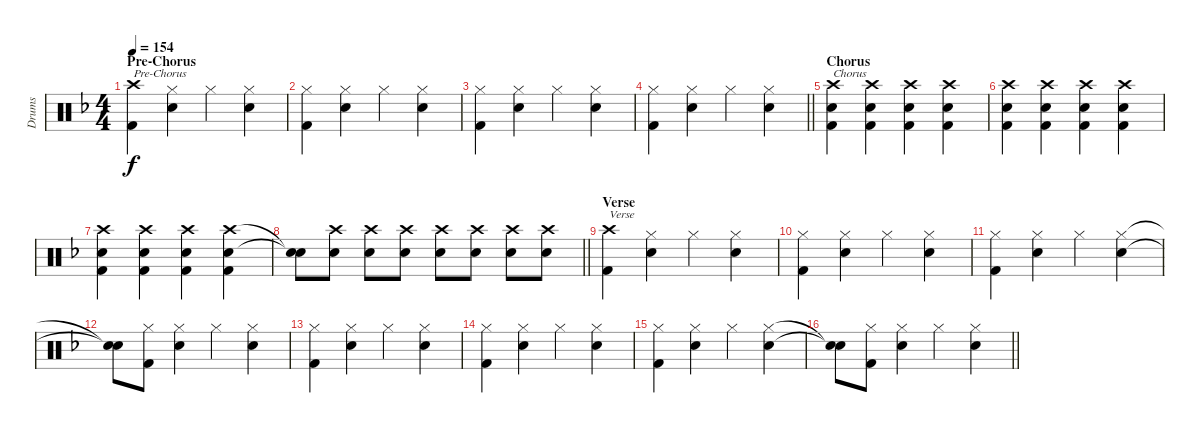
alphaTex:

\track ("Drums" "Drums") {instrument percussion}
\staff {score}
\articulation defaults
\ts (4 4)
\section ("" "Pre-Chorus")
\tempo 154
\clef neutral
\ks f
("Crash high (hit)" "Kick (hit) 2").4{txt "Pre-Chorus" dy f} ("Hi-Hat (closed)" "Snare (hit) 2").4 "Hi-Hat (closed)".4 ("Hi-Hat (closed)" "Snare (hit) 2").4 |
("Hi-Hat (closed)" "Kick (hit) 2").4 ("Hi-Hat (closed)" "Snare (hit) 2").4 "Hi-Hat (closed)".4 ("Hi-Hat (closed)" "Snare (hit) 2").4 |
("Hi-Hat (closed)" "Kick (hit) 2").4 ("Hi-Hat (closed)" "Snare (hit) 2").4 "Hi-Hat (closed)".4 ("Hi-Hat (closed)" "Snare (hit) 2").4 |
\barLineRight lightlight
("Hi-Hat (closed)" "Kick (hit) 2").4 ("Hi-Hat (closed)" "Snare (hit) 2").4 "Hi-Hat (closed)".4 ("Hi-Hat (closed)" "Snare (hit) 2").4 |
\section ("" "Chorus")
("Crash high (hit)" "Snare (hit) 2" "Kick (hit) 2").4{txt "Chorus"} ("Crash high (hit)" "Snare (hit) 2" "Kick (hit) 2").4 ("Crash high (hit)" "Snare (hit) 2" "Kick (hit) 2").4 ("Crash high (hit)" "Snare (hit) 2" "Kick (hit) 2").4 |
("Crash high (hit)" "Snare (hit) 2" "Kick (hit) 2").4 ("Crash high (hit)" "Snare (hit) 2" "Kick (hit) 2").4 ("Crash high (hit)" "Snare (hit) 2" "Kick (hit) 2").4 ("Crash high (hit)" "Snare (hit) 2" "Kick (hit) 2").4 |
("Crash high (hit)" "Snare (hit) 2" "Kick (hit) 2").4 ("Crash high (hit)" "Snare (hit) 2" "Kick (hit) 2").4 ("Crash high (hit)" "Snare (hit) 2" "Kick (hit) 2").4 ("Crash high (hit)" "Snare (hit) 2" "Kick (hit) 2").4 |
\barLineRight lightlight
("Snare (hit)"{t} "Snare (hit)"{t}).8 ("Crash high (hit)" "Snare (hit) 2").8 ("Crash high (hit)" "Snare (hit) 2").8 ("Crash high (hit)" "Snare (hit) 2").8 ("Crash high (hit)" "Snare (hit) 2").8 ("Crash high (hit)" "Snare (hit) 2").8 ("Crash high (hit)" "Snare (hit) 2").8 ("Crash high (hit)" "Snare (hit) 2").8 |
\section ("" "Verse")
("Crash high (hit)" "Kick (hit) 2").4{txt "Verse"} ("Hi-Hat (closed)" "Snare (hit) 2").4 "Hi-Hat (closed)".4 ("Hi-Hat (closed)" "Snare (hit) 2").4 |
("Hi-Hat (closed)" "Kick (hit) 2").4 ("Hi-Hat (closed)" "Snare (hit) 2").4 "Hi-Hat (closed)".4 ("Hi-Hat (closed)" "Snare (hit) 2").4 |
("Hi-Hat (closed)" "Kick (hit) 2").4 ("Hi-Hat (closed)" "Snare (hit) 2").4 "Hi-Hat (closed)".4 ("Hi-Hat (closed)" "Snare (hit) 2").4 |
("Snare (hit)"{t} "Snare (hit)"{t}).8 ("Hi-Hat (closed)" "Kick (hit) 2").8 ("Hi-Hat (closed)" "Snare (hit) 2").4 "Hi-Hat (closed)".4 ("Hi-Hat (closed)" "Snare (hit) 2").4 |
("Hi-Hat (closed)" "Kick (hit) 2").4 ("Hi-Hat (closed)" "Snare (hit) 2").4 "Hi-Hat (closed)".4 ("Hi-Hat (closed)" "Snare (hit) 2").4 |
("Hi-Hat (closed)" "Kick (hit) 2").4 ("Hi-Hat (closed)" "Snare (hit) 2").4 "Hi-Hat (closed)".4 ("Hi-Hat (closed)" "Snare (hit) 2").4 |
("Hi-Hat (closed)" "Kick (hit) 2").4 ("Hi-Hat (closed)" "Snare (hit) 2").4 "Hi-Hat (closed)".4 ("Hi-Hat (closed)" "Snare (hit) 2").4 |
\barLineRight lightlight
("Snare (hit)"{t} "Snare (hit)"{t}).8 ("Hi-Hat (closed)" "Kick (hit) 2").8 ("Hi-Hat (closed)" "Snare (hit) 2").4 "Hi-Hat (closed)".4 ("Hi-Hat (closed)" "Snare (hit) 2").4
